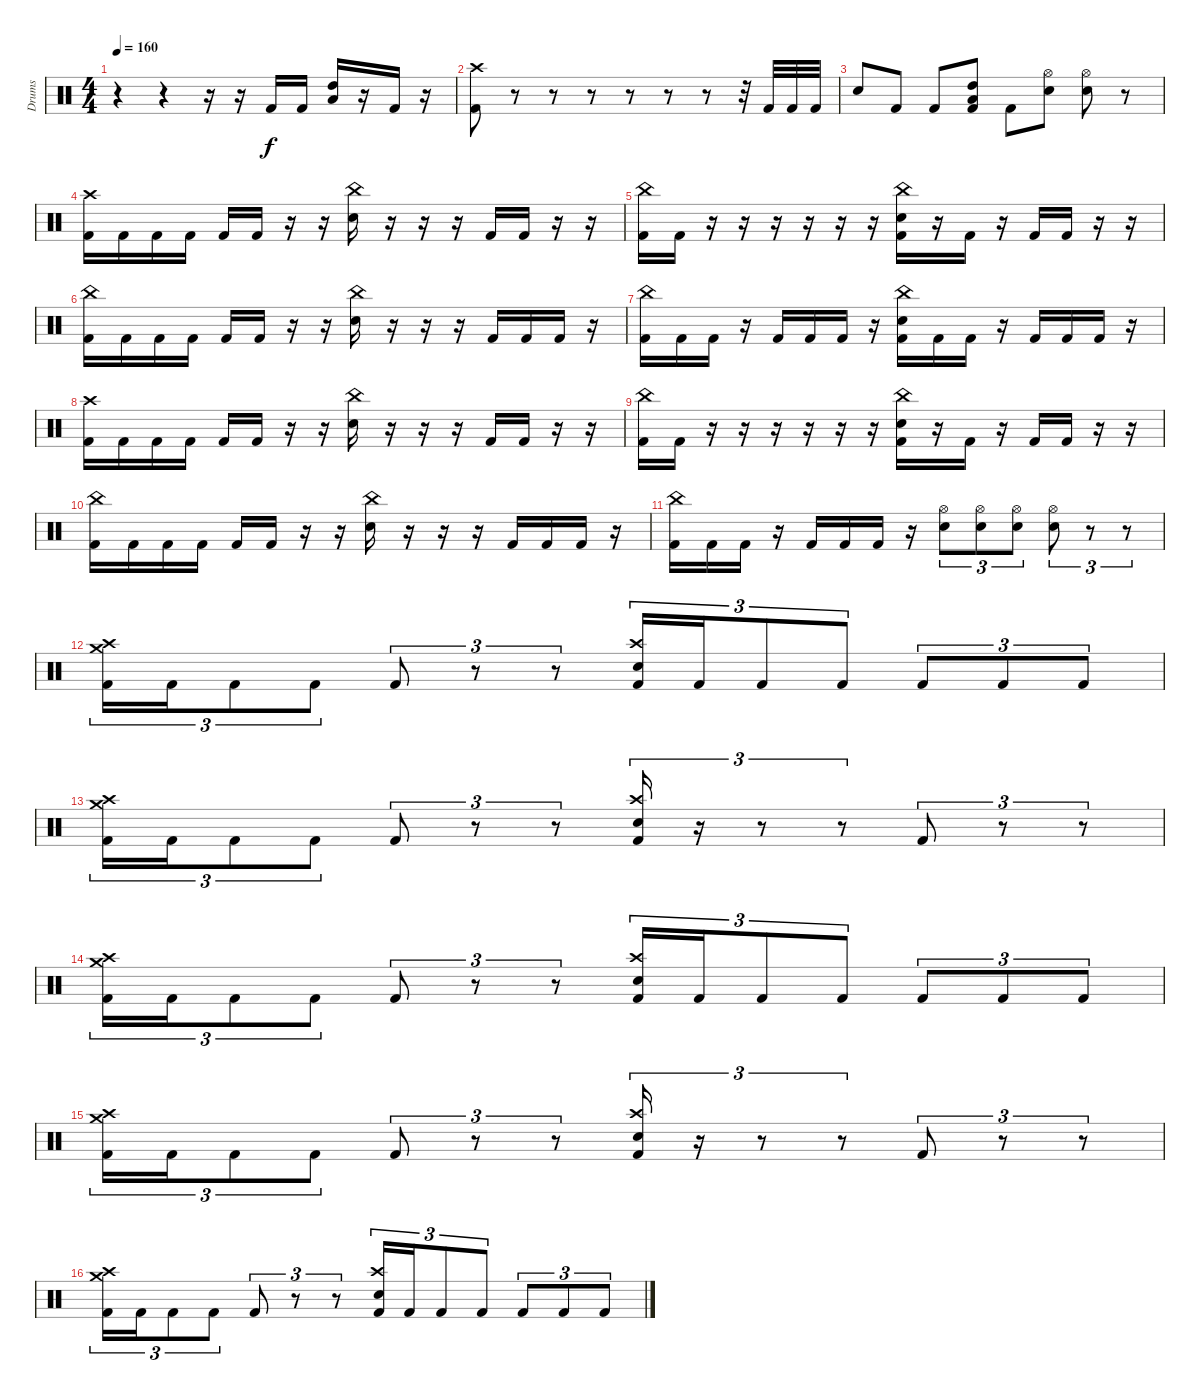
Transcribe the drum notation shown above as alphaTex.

\track ("Drums" "Drums") {instrument percussion}
\staff {score}
\articulation defaults
\ts (4 4)
\tempo 160
\clef neutral
\ks c
r.4{dy f} r.4 r.16 r.16 "Kick (hit) 2".16 "Kick (hit) 2".16 ("Low Floor Tom (hit)" "High Tom (hit)").16 r.16 "Kick (hit) 2".16 r.16 |
("Crash high (hit)" "Kick (hit) 2").8 r.8 r.8 r.8 r.8 r.8 r.8 r.32 "Kick (hit) 2".32 "Kick (hit) 2".32 "Kick (hit) 2".32 |
"Electric Snare (hit)".8 "Kick (hit) 2".8 "Kick (hit) 2".8 ("Low Floor Tom (hit)" "High Tom (hit)" "Kick (hit) 2").8 "Kick (hit) 2".8 ("Hi-Hat (open)" "Electric Snare (hit)").8 ("Hi-Hat (open)" "Electric Snare (hit)").8 r.8 |
("Crash high (hit)" "Kick (hit) 2").16 "Kick (hit) 2".16 "Kick (hit) 2".16 "Kick (hit) 2".16 "Kick (hit) 2".16 "Kick (hit) 2".16 r.16 r.16 ("China (hit)" "Electric Snare (hit)").16 r.16 r.16 r.16 "Kick (hit) 2".16 "Kick (hit) 2".16 r.16 r.16 |
("China (hit)" "Kick (hit) 2").16 "Kick (hit) 2".16 r.16 r.16 r.16 r.16 r.16 r.16 ("China (hit)" "Electric Snare (hit)" "Kick (hit) 2").16 r.16 "Kick (hit) 2".16 r.16 "Kick (hit) 2".16 "Kick (hit) 2".16 r.16 r.16 |
("China (hit)" "Kick (hit) 2").16 "Kick (hit) 2".16 "Kick (hit) 2".16 "Kick (hit) 2".16 "Kick (hit) 2".16 "Kick (hit) 2".16 r.16 r.16 ("China (hit)" "Electric Snare (hit)").16 r.16 r.16 r.16 "Kick (hit) 2".16 "Kick (hit) 2".16 "Kick (hit) 2".16 r.16 |
("China (hit)" "Kick (hit) 2").16 "Kick (hit) 2".16 "Kick (hit) 2".16 r.16 "Kick (hit) 2".16 "Kick (hit) 2".16 "Kick (hit) 2".16 r.16 ("China (hit)" "Electric Snare (hit)" "Kick (hit) 2").16 "Kick (hit) 2".16 "Kick (hit) 2".16 r.16 "Kick (hit) 2".16 "Kick (hit) 2".16 "Kick (hit) 2".16 r.16 |
("Crash high (hit)" "Kick (hit) 2").16 "Kick (hit) 2".16 "Kick (hit) 2".16 "Kick (hit) 2".16 "Kick (hit) 2".16 "Kick (hit) 2".16 r.16 r.16 ("China (hit)" "Electric Snare (hit)").16 r.16 r.16 r.16 "Kick (hit) 2".16 "Kick (hit) 2".16 r.16 r.16 |
("China (hit)" "Kick (hit) 2").16 "Kick (hit) 2".16 r.16 r.16 r.16 r.16 r.16 r.16 ("China (hit)" "Electric Snare (hit)" "Kick (hit) 2").16 r.16 "Kick (hit) 2".16 r.16 "Kick (hit) 2".16 "Kick (hit) 2".16 r.16 r.16 |
("China (hit)" "Kick (hit) 2").16 "Kick (hit) 2".16 "Kick (hit) 2".16 "Kick (hit) 2".16 "Kick (hit) 2".16 "Kick (hit) 2".16 r.16 r.16 ("China (hit)" "Electric Snare (hit)").16 r.16 r.16 r.16 "Kick (hit) 2".16 "Kick (hit) 2".16 "Kick (hit) 2".16 r.16 |
("China (hit)" "Kick (hit) 2").16 "Kick (hit) 2".16 "Kick (hit) 2".16 r.16 "Kick (hit) 2".16 "Kick (hit) 2".16 "Kick (hit) 2".16 r.16 ("Hi-Hat (open)" "Electric Snare (hit)").8{tu (3 2)} ("Hi-Hat (open)" "Electric Snare (hit)").8{tu (3 2)} ("Hi-Hat (open)" "Electric Snare (hit)").8{tu (3 2)} ("Hi-Hat (open)" "Electric Snare (hit)").8{tu (3 2)} r.8{tu (3 2)} r.8{tu (3 2)} |
("Crash high (hit)" "Crash medium (hit)" "Kick (hit) 2").16{tu (3 2)} "Kick (hit) 2".16{tu (3 2)} "Kick (hit) 2".8{tu (3 2)} "Kick (hit) 2".8{tu (3 2)} "Kick (hit) 2".8{tu (3 2)} r.8{tu (3 2)} r.8{tu (3 2)} ("Crash high (hit)" "Electric Snare (hit)" "Kick (hit) 2").16{tu (3 2)} "Kick (hit) 2".16{tu (3 2)} "Kick (hit) 2".8{tu (3 2)} "Kick (hit) 2".8{tu (3 2)} "Kick (hit) 2".8{tu (3 2)} "Kick (hit) 2".8{tu (3 2)} "Kick (hit) 2".8{tu (3 2)} |
("Crash high (hit)" "Crash medium (hit)" "Kick (hit) 2").16{tu (3 2)} "Kick (hit) 2".16{tu (3 2)} "Kick (hit) 2".8{tu (3 2)} "Kick (hit) 2".8{tu (3 2)} "Kick (hit) 2".8{tu (3 2)} r.8{tu (3 2)} r.8{tu (3 2)} ("Crash high (hit)" "Electric Snare (hit)" "Kick (hit) 2").16{tu (3 2)} r.16{tu (3 2)} r.8{tu (3 2)} r.8{tu (3 2)} "Kick (hit) 2".8{tu (3 2)} r.8{tu (3 2)} r.8{tu (3 2)} |
("Crash high (hit)" "Crash medium (hit)" "Kick (hit) 2").16{tu (3 2)} "Kick (hit) 2".16{tu (3 2)} "Kick (hit) 2".8{tu (3 2)} "Kick (hit) 2".8{tu (3 2)} "Kick (hit) 2".8{tu (3 2)} r.8{tu (3 2)} r.8{tu (3 2)} ("Crash high (hit)" "Electric Snare (hit)" "Kick (hit) 2").16{tu (3 2)} "Kick (hit) 2".16{tu (3 2)} "Kick (hit) 2".8{tu (3 2)} "Kick (hit) 2".8{tu (3 2)} "Kick (hit) 2".8{tu (3 2)} "Kick (hit) 2".8{tu (3 2)} "Kick (hit) 2".8{tu (3 2)} |
("Crash high (hit)" "Crash medium (hit)" "Kick (hit) 2").16{tu (3 2)} "Kick (hit) 2".16{tu (3 2)} "Kick (hit) 2".8{tu (3 2)} "Kick (hit) 2".8{tu (3 2)} "Kick (hit) 2".8{tu (3 2)} r.8{tu (3 2)} r.8{tu (3 2)} ("Crash high (hit)" "Electric Snare (hit)" "Kick (hit) 2").16{tu (3 2)} r.16{tu (3 2)} r.8{tu (3 2)} r.8{tu (3 2)} "Kick (hit) 2".8{tu (3 2)} r.8{tu (3 2)} r.8{tu (3 2)} |
("Crash high (hit)" "Crash medium (hit)" "Kick (hit) 2").16{tu (3 2)} "Kick (hit) 2".16{tu (3 2)} "Kick (hit) 2".8{tu (3 2)} "Kick (hit) 2".8{tu (3 2)} "Kick (hit) 2".8{tu (3 2)} r.8{tu (3 2)} r.8{tu (3 2)} ("Crash high (hit)" "Electric Snare (hit)" "Kick (hit) 2").16{tu (3 2)} "Kick (hit) 2".16{tu (3 2)} "Kick (hit) 2".8{tu (3 2)} "Kick (hit) 2".8{tu (3 2)} "Kick (hit) 2".8{tu (3 2)} "Kick (hit) 2".8{tu (3 2)} "Kick (hit) 2".8{tu (3 2)}
